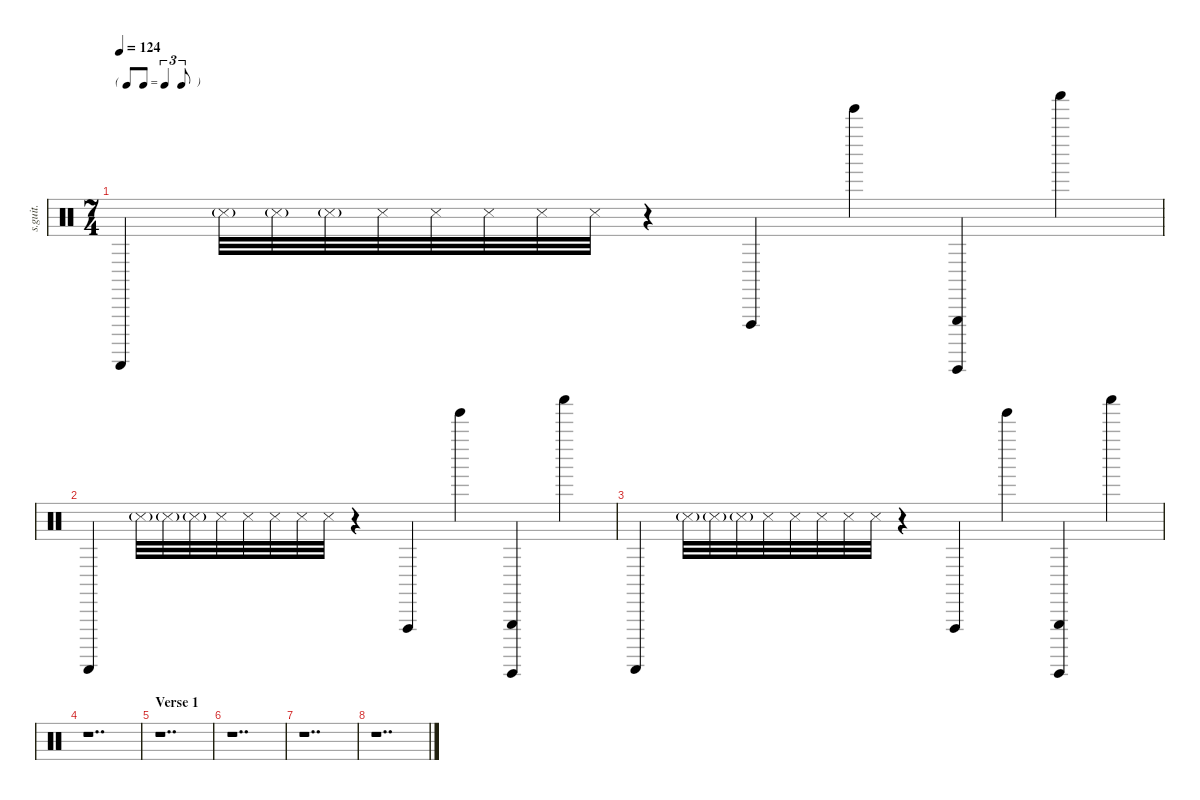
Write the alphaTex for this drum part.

\defaultSystemsLayout 4
\hideDynamics
\bracketExtendMode nobrackets
\track ("Roger Waters & Nick Mason | Tape Loops & Sound Effects" "s.guit.") {instrument percussion}
\staff {score}
\articulation defaults
\ts (7 4)
\tf triplet8th
\tempo 124
\clef neutral
\ks c "Guiro (scrap-return)".4{dy f} "Snare (side stick) 3"{g}.32{dy ff} "Snare (side stick) 3"{g}.32{dy fff} "Snare (side stick) 3"{g}.32 "Snare (side stick) 3".32{dy f} "Snare (side stick) 3".32 "Snare (side stick) 3".32{dy ff} "Snare (side stick) 3".32{dy fff} "Snare (side stick) 3".32
r.4 "Vibraslap (hit)".4{dy f} "Jingle Bell (hit)".4{dy mf} ("Guiro (hit)" "Triangle (hit)").4{dy f} "Shaker (hit)".4 |
"Guiro (scrap-return)".4 "Snare (side stick) 3"{g}.32{dy ff} "Snare (side stick) 3"{g}.32{dy fff} "Snare (side stick) 3"{g}.32 "Snare (side stick) 3".32{dy f} "Snare (side stick) 3".32 "Snare (side stick) 3".32{dy ff} "Snare (side stick) 3".32{dy fff} "Snare (side stick) 3".32 r.4 "Vibraslap (hit)".4{dy f} "Jingle Bell (hit)".4{dy mf} ("Guiro (hit)" "Triangle (hit)").4{dy f} "Shaker (hit)".4 |
"Guiro (scrap-return)".4 "Snare (side stick) 3"{g}.32{dy ff} "Snare (side stick) 3"{g}.32{dy fff} "Snare (side stick) 3"{g}.32 "Snare (side stick) 3".32{dy f} "Snare (side stick) 3".32 "Snare (side stick) 3".32{dy ff} "Snare (side stick) 3".32{dy fff} "Snare (side stick) 3".32 r.4 "Vibraslap (hit)".4{dy f} "Jingle Bell (hit)".4{dy mf} ("Guiro (hit)" "Triangle (hit)").4{dy f} "Shaker (hit)".4 |
r.1{dd} |
\section ("" "Verse 1")
r.1{dd} |
r.1{dd} |
r.1{dd} |
r.1{dd}
